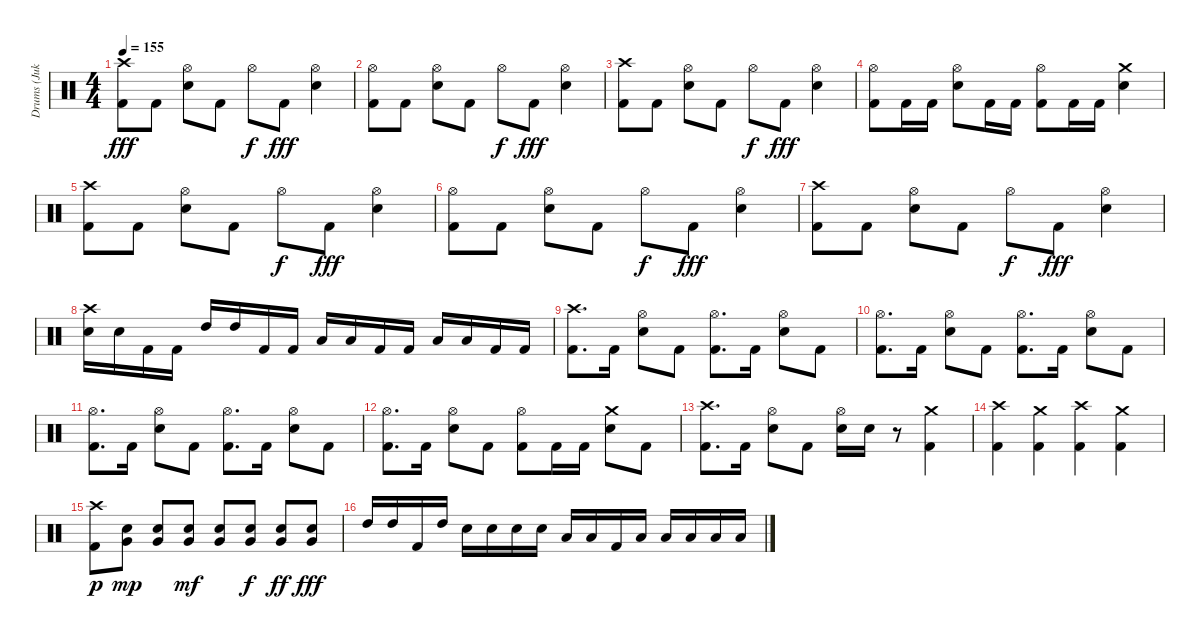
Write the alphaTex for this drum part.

\track ("Drums (Jukka)" "Drums (Juk") {instrument percussion}
\staff {score}
\articulation defaults
\ts (4 4)
\tempo 155
\clef neutral
\ks c
("Kick (hit) 2" "Crash high (hit)").8{dy fff} "Kick (hit) 2".8 ("Snare (hit) 2" "Hi-Hat (open)").8 "Kick (hit) 2".8 "Hi-Hat (open)".8{dy f} "Kick (hit) 2".8{dy fff} ("Snare (hit) 2" "Hi-Hat (open)").4 |
("Kick (hit) 2" "Hi-Hat (open)").8 "Kick (hit) 2".8 ("Snare (hit) 2" "Hi-Hat (open)").8 "Kick (hit) 2".8 "Hi-Hat (open)".8{dy f} "Kick (hit) 2".8{dy fff} ("Snare (hit) 2" "Hi-Hat (open)").4 |
("Kick (hit) 2" "Crash high (hit)").8 "Kick (hit) 2".8 ("Snare (hit) 2" "Hi-Hat (open)").8 "Kick (hit) 2".8 "Hi-Hat (open)".8{dy f} "Kick (hit) 2".8{dy fff} ("Snare (hit) 2" "Hi-Hat (open)").4 |
("Kick (hit) 2" "Hi-Hat (open)").8 "Kick (hit) 2".16 "Kick (hit) 2".16 ("Snare (hit) 2" "Hi-Hat (open)").8 "Kick (hit) 2".16 "Kick (hit) 2".16 ("Kick (hit) 2" "Hi-Hat (open)").8 "Kick (hit) 2".16 "Kick (hit) 2".16 ("Snare (hit) 2" "Crash medium (hit)").4 |
("Kick (hit) 2" "Crash high (hit)").8 "Kick (hit) 2".8 ("Snare (hit) 2" "Hi-Hat (open)").8 "Kick (hit) 2".8 "Hi-Hat (open)".8{dy f} "Kick (hit) 2".8{dy fff} ("Snare (hit) 2" "Hi-Hat (open)").4 |
("Kick (hit) 2" "Hi-Hat (open)").8 "Kick (hit) 2".8 ("Snare (hit) 2" "Hi-Hat (open)").8 "Kick (hit) 2".8 "Hi-Hat (open)".8{dy f} "Kick (hit) 2".8{dy fff} ("Snare (hit) 2" "Hi-Hat (open)").4 |
("Kick (hit) 2" "Crash high (hit)").8 "Kick (hit) 2".8 ("Snare (hit) 2" "Hi-Hat (open)").8 "Kick (hit) 2".8 "Hi-Hat (open)".8{dy f} "Kick (hit) 2".8{dy fff} ("Snare (hit) 2" "Hi-Hat (open)").4 |
("Snare (hit) 2" "Crash high (hit)").16 "Snare (hit) 2".16 "Kick (hit) 2".16 "Kick (hit) 2".16 "High Tom (hit)".16 "High Tom (hit)".16 "Kick (hit) 2".16 "Kick (hit) 2".16 "Low Tom (hit)".16 "Low Tom (hit)".16 "Kick (hit) 2".16 "Kick (hit) 2".16 "Low Floor Tom (hit)".16 "Low Floor Tom (hit)".16 "Kick (hit) 2".16 "Kick (hit) 2".16 |
("Kick (hit) 2" "Crash high (hit)").8{d} "Kick (hit) 2".16 ("Snare (hit) 2" "Hi-Hat (open)").8 "Kick (hit) 2".8 ("Kick (hit) 2" "Hi-Hat (open)").8{d} "Kick (hit) 2".16 ("Snare (hit) 2" "Hi-Hat (open)").8 "Kick (hit) 2".8 |
("Kick (hit) 2" "Hi-Hat (open)").8{d} "Kick (hit) 2".16 ("Snare (hit) 2" "Hi-Hat (open)").8 "Kick (hit) 2".8 ("Kick (hit) 2" "Hi-Hat (open)").8{d} "Kick (hit) 2".16 ("Snare (hit) 2" "Hi-Hat (open)").8 "Kick (hit) 2".8 |
("Kick (hit) 2" "Hi-Hat (open)").8{d} "Kick (hit) 2".16 ("Snare (hit) 2" "Hi-Hat (open)").8 "Kick (hit) 2".8 ("Kick (hit) 2" "Hi-Hat (open)").8{d} "Kick (hit) 2".16 ("Snare (hit) 2" "Hi-Hat (open)").8 "Kick (hit) 2".8 |
("Kick (hit) 2" "Hi-Hat (open)").8{d} "Kick (hit) 2".16 ("Snare (hit) 2" "Hi-Hat (open)").8 "Kick (hit) 2".8 ("Kick (hit) 2" "Hi-Hat (open)").8 "Kick (hit) 2".16 "Kick (hit) 2".16 ("Snare (hit) 2" "Crash medium (hit)").8 "Kick (hit) 2".8 |
("Kick (hit) 2" "Crash high (hit)").8{d} "Kick (hit) 2".16 ("Snare (hit) 2" "Hi-Hat (open)").8 "Kick (hit) 2".8 ("Snare (hit) 2" "Hi-Hat (open)").16 "Snare (hit) 2".16 r.8 ("Kick (hit) 2" "Crash medium (hit)").4 |
("Kick (hit) 2" "Crash high (hit)").4 ("Kick (hit) 2" "Crash medium (hit)").4 ("Kick (hit) 2" "Crash high (hit)").4 ("Kick (hit) 2" "Crash medium (hit)").4 |
("Kick (hit) 2" "Crash high (hit)").8{dy p} ("Snare (hit) 2" "Very Low Tom (hit)").8{dy mp} ("Snare (hit) 2" "Very Low Tom (hit)").8 ("Snare (hit) 2" "Very Low Tom (hit)").8{dy mf} ("Snare (hit) 2" "Very Low Tom (hit)").8 ("Snare (hit) 2" "Very Low Tom (hit)").8{dy f} ("Snare (hit) 2" "Very Low Tom (hit)").8{dy ff} ("Snare (hit) 2" "Very Low Tom (hit)").8{dy fff} |
"High Tom (hit)".16 "High Tom (hit)".16 "Kick (hit) 2".16 "High Tom (hit)".16 "Snare (hit) 2".16 "Snare (hit) 2".16 "Snare (hit) 2".16 "Snare (hit) 2".16 "Low Tom (hit)".16 "Low Tom (hit)".16 "Kick (hit) 2".16 "Low Tom (hit)".16 "Low Floor Tom (hit)".16 "Low Floor Tom (hit)".16 "Low Tom (hit)".16 "Low Floor Tom (hit)".16
